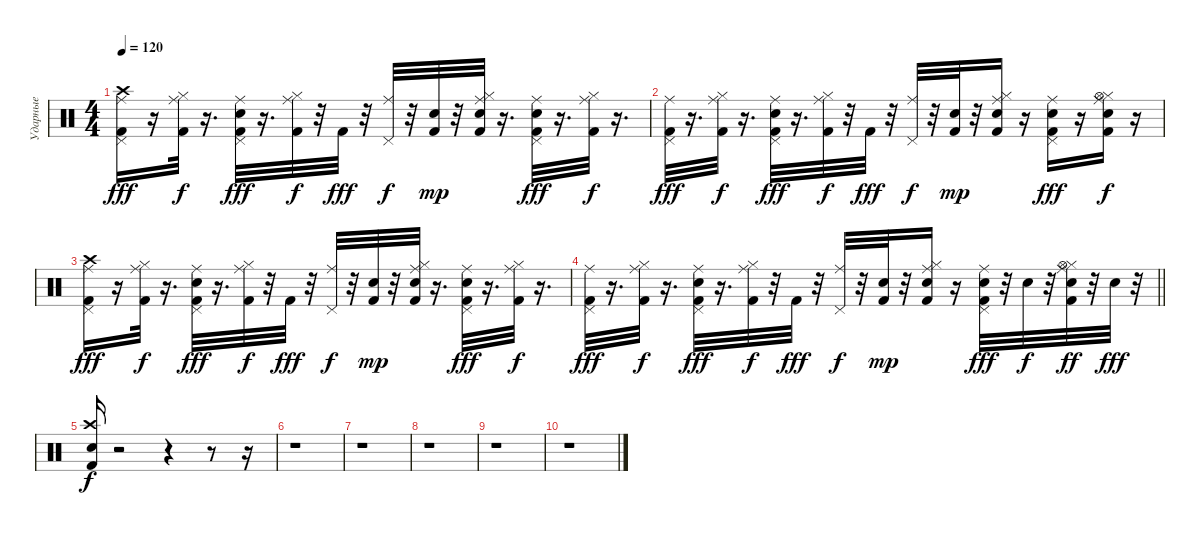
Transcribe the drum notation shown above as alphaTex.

\track ("Ударные" "Ударные") {instrument percussion}
\staff {score}
\articulation defaults
\ts (4 4)
\tempo 120
\clef neutral
\ks c
("Kick (hit) 2" "Pedal Hi-Hat (hit)" "Crash high (hit)" "Ride (middle)").16{dy fff} r.16 ("Kick (hit) 2" "Hi-Hat (closed)" "Ride (middle)").32{dy f} r.16{d} ("Kick (hit) 2" "Snare (hit) 2" "Pedal Hi-Hat (hit)" "Ride (middle)").32{dy fff} r.16{d} ("Kick (hit) 2" "Hi-Hat (closed)" "Ride (middle)").32{dy f} r.32 "Kick (hit) 2".32{dy fff} r.32 ("Pedal Hi-Hat (hit)" "Ride (middle)").32{dy f} r.32 ("Kick (hit) 2" "Snare (hit) 2").32{dy mp} r.32 ("Kick (hit) 2" "Snare (hit) 2" "Hi-Hat (closed)" "Ride (middle)").32 r.16{d} ("Kick (hit) 2" "Snare (hit) 2" "Pedal Hi-Hat (hit)" "Ride (middle)").32{dy fff} r.16{d} ("Kick (hit) 2" "Hi-Hat (closed)" "Ride (middle)").32{dy f} r.16{d} |
("Kick (hit) 2" "Pedal Hi-Hat (hit)" "Ride (middle)").32{dy fff} r.16{d} ("Kick (hit) 2" "Hi-Hat (closed)" "Ride (middle)").32{dy f} r.16{d} ("Kick (hit) 2" "Snare (hit) 2" "Pedal Hi-Hat (hit)" "Ride (middle)").32{dy fff} r.16{d} ("Kick (hit) 2" "Hi-Hat (closed)" "Ride (middle)").32{dy f} r.32 "Kick (hit) 2".32{dy fff} r.32 ("Pedal Hi-Hat (hit)" "Ride (middle)").32{dy f} r.32 ("Kick (hit) 2" "Snare (hit) 2").32{dy mp} r.32 ("Kick (hit) 2" "Snare (hit) 2" "Hi-Hat (closed)" "Ride (middle)").16 r.16 ("Kick (hit) 2" "Snare (hit) 2" "Pedal Hi-Hat (hit)" "Ride (middle)").16{dy fff} r.16 ("Kick (hit) 2" "Snare (hit) 2" "Hi-Hat (closed)" "Hi-Hat (open)" "Ride (middle)").16{dy f} r.16 |
("Kick (hit) 2" "Pedal Hi-Hat (hit)" "Crash high (hit)" "Ride (middle)").16{dy fff} r.16 ("Kick (hit) 2" "Hi-Hat (closed)" "Ride (middle)").32{dy f} r.16{d} ("Kick (hit) 2" "Snare (hit) 2" "Pedal Hi-Hat (hit)" "Ride (middle)").32{dy fff} r.16{d} ("Kick (hit) 2" "Hi-Hat (closed)" "Ride (middle)").32{dy f} r.32 "Kick (hit) 2".32{dy fff} r.32 ("Pedal Hi-Hat (hit)" "Ride (middle)").32{dy f} r.32 ("Kick (hit) 2" "Snare (hit) 2").32{dy mp} r.32 ("Kick (hit) 2" "Snare (hit) 2" "Hi-Hat (closed)" "Ride (middle)").32 r.16{d} ("Kick (hit) 2" "Snare (hit) 2" "Pedal Hi-Hat (hit)" "Ride (middle)").32{dy fff} r.16{d} ("Kick (hit) 2" "Hi-Hat (closed)" "Ride (middle)").32{dy f} r.16{d} |
\barLineRight lightlight
("Kick (hit) 2" "Pedal Hi-Hat (hit)" "Ride (middle)").32{dy fff} r.16{d} ("Kick (hit) 2" "Hi-Hat (closed)" "Ride (middle)").32{dy f} r.16{d} ("Kick (hit) 2" "Snare (hit) 2" "Pedal Hi-Hat (hit)" "Ride (middle)").32{dy fff} r.16{d} ("Kick (hit) 2" "Hi-Hat (closed)" "Ride (middle)").32{dy f} r.32 "Kick (hit) 2".32{dy fff} r.32 ("Pedal Hi-Hat (hit)" "Ride (middle)").32{dy f} r.32 ("Kick (hit) 2" "Snare (hit) 2").32{dy mp} r.32 ("Kick (hit) 2" "Snare (hit) 2" "Hi-Hat (closed)" "Ride (middle)").16 r.16 ("Kick (hit) 2" "Snare (hit) 2" "Pedal Hi-Hat (hit)" "Ride (middle)").32{dy fff} r.32 "Snare (hit) 2".32{dy f} r.32 ("Kick (hit) 2" "Snare (hit) 2" "Hi-Hat (closed)" "Hi-Hat (open)" "Ride (middle)").32{dy ff} r.32 "Snare (hit) 2".32{dy fff} r.32 |
("Kick (hit) 2" "Snare (hit) 2" "Crash high (hit)").16{dy f} r.2 r.4 r.8 r.16 |
r.1 |
r.1 |
r.1 |
r.1 |
r.1
